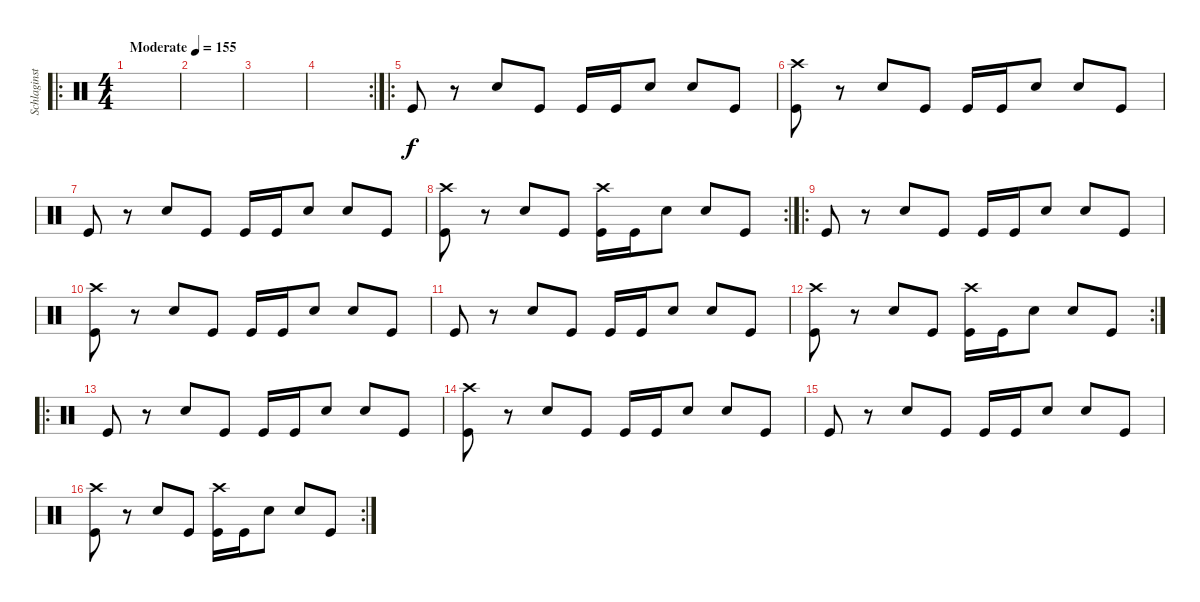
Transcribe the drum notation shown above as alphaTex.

\track ("Schlaginstrumente - Auswahl" "Schlaginst") {instrument percussion}
\staff {score}
\articulation defaults
\ro
\ts (4 4)
\tempo (155 "Moderate")
\clef neutral
\ks c
|
|
|
\rc 2
|
\ro "Kick (hit)".8
r.8 "Snare (hit) 2".8 "Kick (hit)".8 "Kick (hit)".16 "Kick (hit)".16 "Snare (hit) 2".8 "Snare (hit) 2".8 "Kick (hit)".8 |
("Crash high (hit)" "Kick (hit)").8 r.8 "Snare (hit) 2".8 "Kick (hit)".8 "Kick (hit)".16 "Kick (hit)".16 "Snare (hit) 2".8 "Snare (hit) 2".8 "Kick (hit)".8 |
"Kick (hit)".8 r.8 "Snare (hit) 2".8 "Kick (hit)".8 "Kick (hit)".16 "Kick (hit)".16 "Snare (hit) 2".8 "Snare (hit) 2".8 "Kick (hit)".8 |
\rc 2
("Crash high (hit)" "Kick (hit)").8 r.8 "Snare (hit) 2".8 "Kick (hit)".8 ("Crash high (hit)" "Kick (hit)").16 "Kick (hit)".16 "Snare (hit) 2".8 "Snare (hit) 2".8 "Kick (hit)".8 |
\ro "Kick (hit)".8
r.8 "Snare (hit) 2".8 "Kick (hit)".8 "Kick (hit)".16 "Kick (hit)".16 "Snare (hit) 2".8 "Snare (hit) 2".8 "Kick (hit)".8 |
("Crash high (hit)" "Kick (hit)").8 r.8 "Snare (hit) 2".8 "Kick (hit)".8 "Kick (hit)".16 "Kick (hit)".16 "Snare (hit) 2".8 "Snare (hit) 2".8 "Kick (hit)".8 |
"Kick (hit)".8 r.8 "Snare (hit) 2".8 "Kick (hit)".8 "Kick (hit)".16 "Kick (hit)".16 "Snare (hit) 2".8 "Snare (hit) 2".8 "Kick (hit)".8 |
\rc 2
("Crash high (hit)" "Kick (hit)").8 r.8 "Snare (hit) 2".8 "Kick (hit)".8 ("Crash high (hit)" "Kick (hit)").16 "Kick (hit)".16 "Snare (hit) 2".8 "Snare (hit) 2".8 "Kick (hit)".8 |
\ro "Kick (hit)".8
r.8 "Snare (hit) 2".8 "Kick (hit)".8 "Kick (hit)".16 "Kick (hit)".16 "Snare (hit) 2".8 "Snare (hit) 2".8 "Kick (hit)".8 |
("Crash high (hit)" "Kick (hit)").8 r.8 "Snare (hit) 2".8 "Kick (hit)".8 "Kick (hit)".16 "Kick (hit)".16 "Snare (hit) 2".8 "Snare (hit) 2".8 "Kick (hit)".8 |
"Kick (hit)".8 r.8 "Snare (hit) 2".8 "Kick (hit)".8 "Kick (hit)".16 "Kick (hit)".16 "Snare (hit) 2".8 "Snare (hit) 2".8 "Kick (hit)".8 |
\rc 2
("Crash high (hit)" "Kick (hit)").8 r.8 "Snare (hit) 2".8 "Kick (hit)".8 ("Crash high (hit)" "Kick (hit)").16 "Kick (hit)".16 "Snare (hit) 2".8 "Snare (hit) 2".8 "Kick (hit)".8
